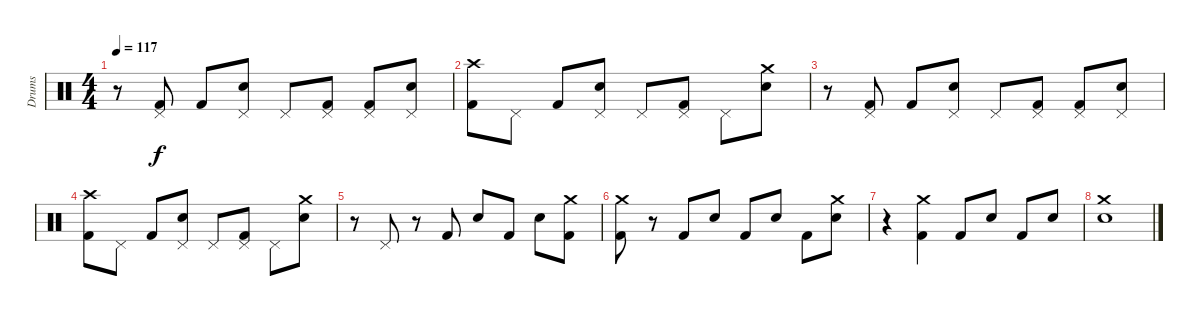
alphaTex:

\track ("Drums" "Drums") {instrument percussion}
\staff {score}
\articulation defaults
\ts (4 4)
\tempo 117
\clef neutral
\ks c
r.8{dy f} ("Pedal Hi-Hat (hit)" "Kick (hit) 2").8 "Kick (hit) 2".8 ("Pedal Hi-Hat (hit)" "Snare (hit) 2").8 "Pedal Hi-Hat (hit)".8 ("Pedal Hi-Hat (hit)" "Kick (hit) 2").8 ("Pedal Hi-Hat (hit)" "Kick (hit) 2").8 ("Pedal Hi-Hat (hit)" "Snare (hit) 2").8 |
("Crash high (hit)" "Kick (hit) 2").8 "Pedal Hi-Hat (hit)".8 "Kick (hit) 2".8 ("Pedal Hi-Hat (hit)" "Snare (hit) 2").8 "Pedal Hi-Hat (hit)".8 ("Pedal Hi-Hat (hit)" "Kick (hit) 2").8 "Pedal Hi-Hat (hit)".8 ("Crash medium (hit)" "Snare (hit) 2").8 |
r.8 ("Pedal Hi-Hat (hit)" "Kick (hit) 2").8 "Kick (hit) 2".8 ("Pedal Hi-Hat (hit)" "Snare (hit) 2").8 "Pedal Hi-Hat (hit)".8 ("Pedal Hi-Hat (hit)" "Kick (hit) 2").8 ("Pedal Hi-Hat (hit)" "Kick (hit) 2").8 ("Pedal Hi-Hat (hit)" "Snare (hit) 2").8 |
("Crash high (hit)" "Kick (hit) 2").8 "Pedal Hi-Hat (hit)".8 "Kick (hit) 2".8 ("Pedal Hi-Hat (hit)" "Snare (hit) 2").8 "Pedal Hi-Hat (hit)".8 ("Pedal Hi-Hat (hit)" "Kick (hit) 2").8 "Pedal Hi-Hat (hit)".8 ("Crash medium (hit)" "Snare (hit) 2").8 |
r.8 "Pedal Hi-Hat (hit)".8 r.8 "Kick (hit) 2".8 "Snare (hit) 2".8 "Kick (hit) 2".8 "Snare (hit) 2".8 ("Crash medium (hit)" "Kick (hit) 2").8 |
("Crash medium (hit)" "Kick (hit) 2").8 r.8 "Kick (hit) 2".8 "Snare (hit) 2".8 "Kick (hit) 2".8 "Snare (hit) 2".8 "Kick (hit) 2".8 ("Crash medium (hit)" "Snare (hit) 2").8 |
r.4 ("Crash medium (hit)" "Kick (hit) 2").4 "Kick (hit) 2".8 "Snare (hit) 2".8 "Kick (hit) 2".8 "Snare (hit) 2".8 |
("Crash medium (hit)" "Snare (hit) 2").1
